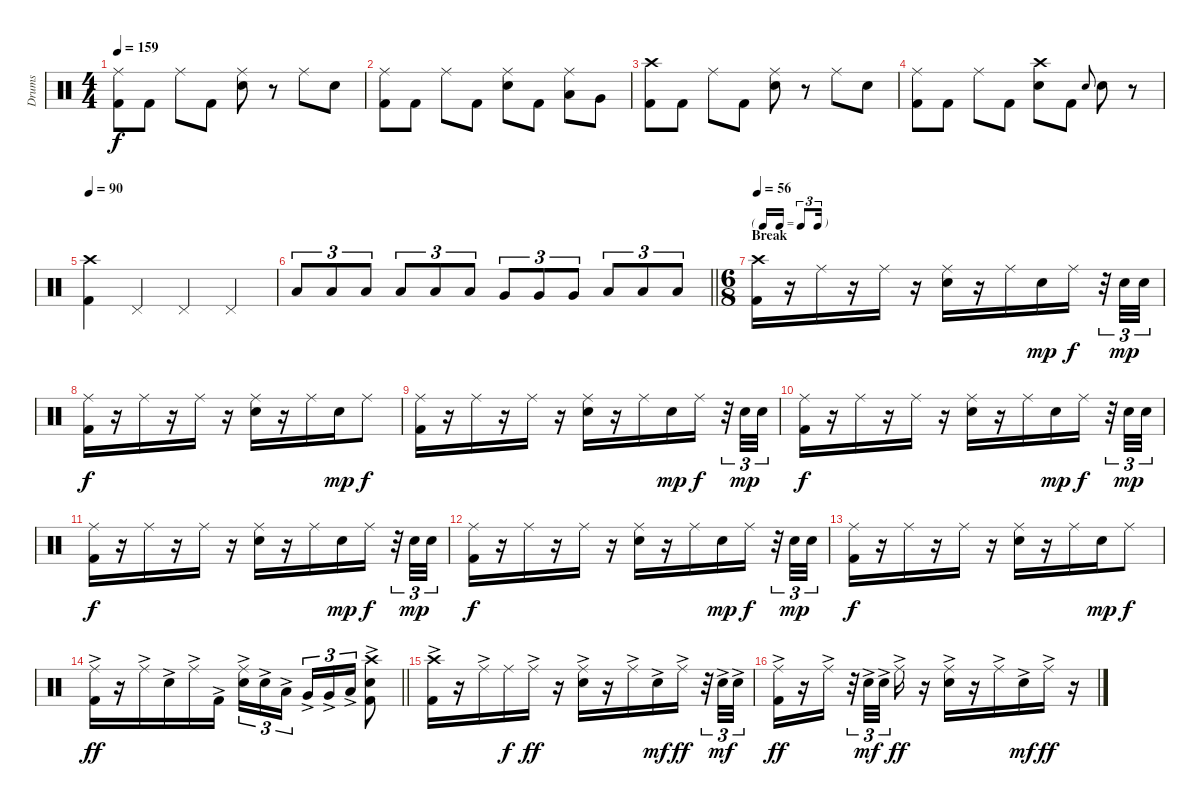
\track ("Drums" "Drums") {instrument percussion}
\staff {score}
\articulation defaults
\ts (4 4)
\tempo 159
\clef neutral
\ks c
("Ride (middle)" "Kick (hit) 2").8{dy f} "Kick (hit) 2".8 "Ride (middle)".8 "Kick (hit) 2".8 ("Ride (middle)" "Electric Snare (hit)").8 r.8 "Ride (middle)".8 "Electric Snare (hit)".8 |
("Ride (middle)" "Kick (hit) 2").8 "Kick (hit) 2".8 "Ride (middle)".8 "Kick (hit) 2".8 ("Ride (middle)" "Electric Snare (hit)").8 "Kick (hit) 2".8 ("Ride (middle)" "Low Tom (hit)").8 "Very Low Tom (hit)".8 |
("Crash high (hit)" "Kick (hit) 2").8 "Kick (hit) 2".8 "Ride (middle)".8 "Kick (hit) 2".8 ("Ride (middle)" "Electric Snare (hit)").8 r.8 "Ride (middle)".8 "Electric Snare (hit)".8 |
("Ride (middle)" "Kick (hit) 2").8 "Kick (hit) 2".8 "Ride (middle)".8 "Kick (hit) 2".8 ("Crash high (hit)" "Electric Snare (hit)").8 "Kick (hit) 2".8 "Electric Snare (hit)".8{gr onbeat} "Electric Snare (hit)".8 r.8 |
\tempo 90
("Crash high (hit)" "Kick (hit) 2").4 "Pedal Hi-Hat (hit)".4 "Pedal Hi-Hat (hit)".4 "Pedal Hi-Hat (hit)".4 |
\barLineRight lightlight "Low Tom (hit)".8{tu (3 2)} "Low Tom (hit)".8{tu (3 2)} "Low Tom (hit)".8{tu (3 2)} "Low Tom (hit)".8{tu (3 2)} "Low Tom (hit)".8{tu (3 2)} "Low Tom (hit)".8{tu (3 2)} "Very Low Tom (hit)".8{tu (3 2)} "Very Low Tom (hit)".8{tu (3 2)} "Very Low Tom (hit)".8{tu (3 2)} "Low Floor Tom (hit)".8{tu (3 2)} "Low Floor Tom (hit)".8{tu (3 2)} "Low Floor Tom (hit)".8{tu (3 2)}
|
\ts (6 8)
\tf triplet16th
\section ("" "Break")
\tempo 56
("Crash high (hit)" "Kick (hit) 2").16 r.16 "Ride (middle)".16 r.16 "Ride (middle)".16 r.16 ("Ride (middle)" "Electric Snare (hit)").16 r.16 "Ride (middle)".16 "Electric Snare (hit)".16{dy mp} "Ride (middle)".16{dy f} r.32{tu (3 2)} "Electric Snare (hit)".32{tu (3 2) dy mp} "Electric Snare (hit)".32{tu (3 2)} |
("Ride (middle)" "Kick (hit) 2").16{dy f} r.16 "Ride (middle)".16 r.16 "Ride (middle)".16 r.16 ("Ride (middle)" "Electric Snare (hit)").16 r.16 "Ride (middle)".16 "Electric Snare (hit)".16{dy mp} "Ride (middle)".8{dy f} |
("Ride (middle)" "Kick (hit) 2").16 r.16 "Ride (middle)".16 r.16 "Ride (middle)".16 r.16 ("Ride (middle)" "Electric Snare (hit)").16 r.16 "Ride (middle)".16 "Electric Snare (hit)".16{dy mp} "Ride (middle)".16{dy f} r.32{tu (3 2)} "Electric Snare (hit)".32{tu (3 2) dy mp} "Electric Snare (hit)".32{tu (3 2)} |
("Ride (middle)" "Kick (hit) 2").16{dy f} r.16 "Ride (middle)".16 r.16 "Ride (middle)".16 r.16 ("Ride (middle)" "Electric Snare (hit)").16 r.16 "Ride (middle)".16 "Electric Snare (hit)".16{dy mp} "Ride (middle)".16{dy f} r.32{tu (3 2)} "Electric Snare (hit)".32{tu (3 2) dy mp} "Electric Snare (hit)".32{tu (3 2)} |
("Ride (middle)" "Kick (hit) 2").16{dy f} r.16 "Ride (middle)".16 r.16 "Ride (middle)".16 r.16 ("Ride (middle)" "Electric Snare (hit)").16 r.16 "Ride (middle)".16 "Electric Snare (hit)".16{dy mp} "Ride (middle)".16{dy f} r.32{tu (3 2)} "Electric Snare (hit)".32{tu (3 2) dy mp} "Electric Snare (hit)".32{tu (3 2)} |
("Ride (middle)" "Kick (hit) 2").16{dy f} r.16 "Ride (middle)".16 r.16 "Ride (middle)".16 r.16 ("Ride (middle)" "Electric Snare (hit)").16 r.16 "Ride (middle)".16 "Electric Snare (hit)".16{dy mp} "Ride (middle)".16{dy f} r.32{tu (3 2)} "Electric Snare (hit)".32{tu (3 2) dy mp} "Electric Snare (hit)".32{tu (3 2)} |
("Ride (middle)" "Kick (hit) 2").16{dy f} r.16 "Ride (middle)".16 r.16 "Ride (middle)".16 r.16 ("Ride (middle)" "Electric Snare (hit)").16 r.16 "Ride (middle)".16 "Electric Snare (hit)".16{dy mp} "Ride (middle)".8{dy f} |
\barLineRight lightlight
("Ride (middle)"{ac} "Kick (hit) 2"{ac}).16{dy ff} r.16 "Ride (middle)"{ac}.16 "Electric Snare (hit)"{ac}.16 "Ride (middle)"{ac}.16 "Kick (hit) 2"{ac}.16 ("Ride (middle)"{ac} "Electric Snare (hit)"{ac}).16{tu (3 2)} "Electric Snare (hit)"{ac}.16{tu (3 2)} "Low Tom (hit)"{ac}.16{tu (3 2) beam splitsecondary} "Very Low Tom (hit)"{ac}.16{tu (3 2)} "Very Low Tom (hit)"{ac}.16{tu (3 2)} "Low Floor Tom (hit)"{ac}.16{tu (3 2)} ("Crash high (hit)"{ac} "Electric Snare (hit)"{ac} "Kick (hit) 2"{ac}).8 |
("Crash high (hit)"{ac} "Kick (hit) 2"{ac}).16 r.16 "Ride (middle)"{ac}.16 "Ride (middle)".16{dy f} "Ride (middle)"{ac}.16{dy ff} r.16 ("Ride (middle)"{ac} "Electric Snare (hit)"{ac}).16 r.16 "Ride (middle)"{ac}.16 "Electric Snare (hit)"{ac}.16{dy mf} "Ride (middle)"{ac}.16{dy ff} r.32{tu (3 2)} "Electric Snare (hit)"{ac}.32{tu (3 2) dy mf} "Electric Snare (hit)"{ac}.32{tu (3 2)} |
("Ride (middle)"{ac} "Kick (hit) 2"{ac}).16{dy ff} r.16 "Ride (middle)"{ac}.16 r.32{tu (3 2)} "Electric Snare (hit)"{ac}.32{tu (3 2) dy mf} "Electric Snare (hit)"{ac}.32{tu (3 2) beam splitsecondary} "Ride (middle)"{ac}.16{dy ff} r.16 ("Ride (middle)"{ac} "Electric Snare (hit)"{ac}).16 r.16 "Ride (middle)"{ac}.16 "Electric Snare (hit)"{ac}.16{dy mf} "Ride (middle)"{ac}.16{dy ff} r.16
